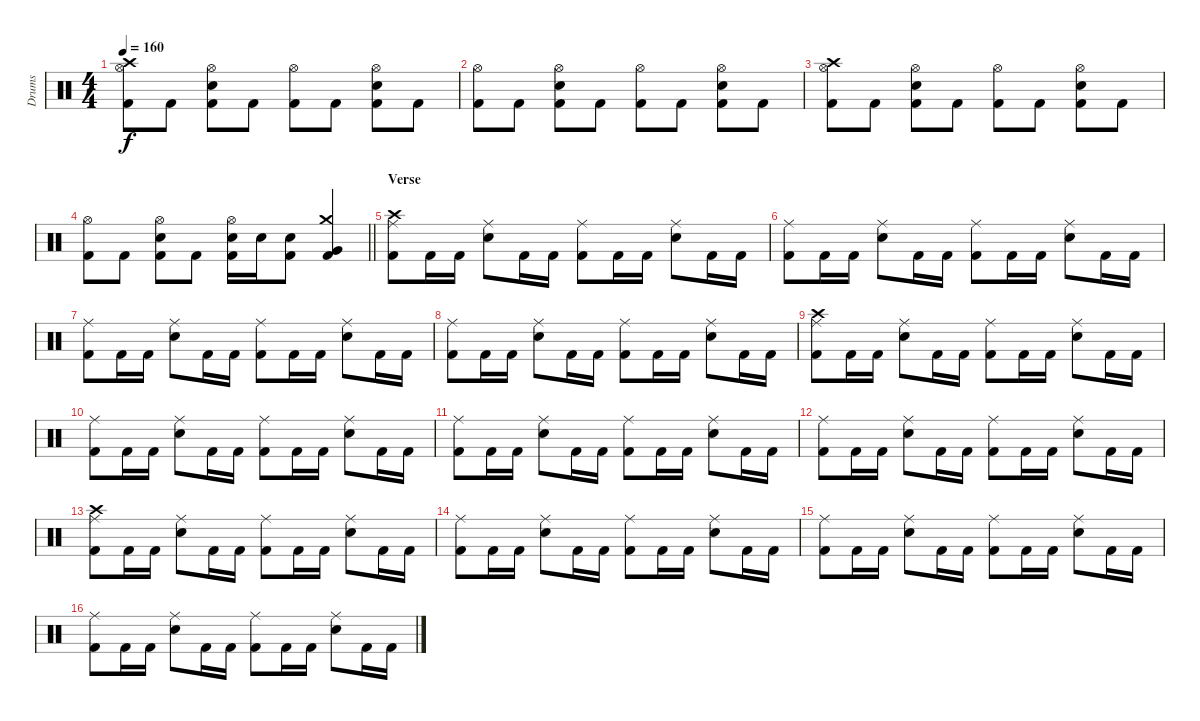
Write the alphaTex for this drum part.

\track ("Drums" "Drums") {instrument percussion}
\staff {score}
\articulation defaults
\ts (4 4)
\tempo 160
\clef neutral
\ks c
("Crash high (hit)" "Hi-Hat (open)" "Kick (hit) 2").8{dy f} "Kick (hit) 2".8 ("Hi-Hat (open)" "Snare (hit) 2" "Kick (hit) 2").8 "Kick (hit) 2".8 ("Hi-Hat (open)" "Kick (hit) 2").8 "Kick (hit) 2".8 ("Hi-Hat (open)" "Snare (hit) 2" "Kick (hit) 2").8 "Kick (hit) 2".8 |
("Hi-Hat (open)" "Kick (hit) 2").8 "Kick (hit) 2".8 ("Hi-Hat (open)" "Snare (hit) 2" "Kick (hit) 2").8 "Kick (hit) 2".8 ("Hi-Hat (open)" "Kick (hit) 2").8 "Kick (hit) 2".8 ("Hi-Hat (open)" "Snare (hit) 2" "Kick (hit) 2").8 "Kick (hit) 2".8 |
("Crash high (hit)" "Hi-Hat (open)" "Kick (hit) 2").8 "Kick (hit) 2".8 ("Hi-Hat (open)" "Snare (hit) 2" "Kick (hit) 2").8 "Kick (hit) 2".8 ("Hi-Hat (open)" "Kick (hit) 2").8 "Kick (hit) 2".8 ("Hi-Hat (open)" "Snare (hit) 2" "Kick (hit) 2").8 "Kick (hit) 2".8 |
\barLineRight lightlight
("Hi-Hat (open)" "Kick (hit) 2").8 "Kick (hit) 2".8 ("Hi-Hat (open)" "Snare (hit) 2" "Kick (hit) 2").8 "Kick (hit) 2".8 ("Hi-Hat (open)" "Snare (hit) 2" "Kick (hit) 2").16 "Snare (hit) 2".16 ("Snare (hit) 2" "Kick (hit) 2").8 ("Crash medium (hit)" "Very Low Tom (hit)" "Kick (hit) 2").4 |
\section ("" "Verse")
("Crash high (hit)" "Ride (middle)" "Kick (hit) 2").8 "Kick (hit) 2".16 "Kick (hit) 2".16 ("Ride (middle)" "Snare (hit) 2").8 "Kick (hit) 2".16 "Kick (hit) 2".16 ("Ride (middle)" "Kick (hit) 2").8 "Kick (hit) 2".16 "Kick (hit) 2".16 ("Ride (middle)" "Snare (hit) 2").8 "Kick (hit) 2".16 "Kick (hit) 2".16 |
("Ride (middle)" "Kick (hit) 2").8 "Kick (hit) 2".16 "Kick (hit) 2".16 ("Ride (middle)" "Snare (hit) 2").8 "Kick (hit) 2".16 "Kick (hit) 2".16 ("Ride (middle)" "Kick (hit) 2").8 "Kick (hit) 2".16 "Kick (hit) 2".16 ("Ride (middle)" "Snare (hit) 2").8 "Kick (hit) 2".16 "Kick (hit) 2".16 |
("Ride (middle)" "Kick (hit) 2").8 "Kick (hit) 2".16 "Kick (hit) 2".16 ("Ride (middle)" "Snare (hit) 2").8 "Kick (hit) 2".16 "Kick (hit) 2".16 ("Ride (middle)" "Kick (hit) 2").8 "Kick (hit) 2".16 "Kick (hit) 2".16 ("Ride (middle)" "Snare (hit) 2").8 "Kick (hit) 2".16 "Kick (hit) 2".16 |
("Ride (middle)" "Kick (hit) 2").8 "Kick (hit) 2".16 "Kick (hit) 2".16 ("Ride (middle)" "Snare (hit) 2").8 "Kick (hit) 2".16 "Kick (hit) 2".16 ("Ride (middle)" "Kick (hit) 2").8 "Kick (hit) 2".16 "Kick (hit) 2".16 ("Ride (middle)" "Snare (hit) 2").8 "Kick (hit) 2".16 "Kick (hit) 2".16 |
("Crash high (hit)" "Ride (middle)" "Kick (hit) 2").8 "Kick (hit) 2".16 "Kick (hit) 2".16 ("Ride (middle)" "Snare (hit) 2").8 "Kick (hit) 2".16 "Kick (hit) 2".16 ("Ride (middle)" "Kick (hit) 2").8 "Kick (hit) 2".16 "Kick (hit) 2".16 ("Ride (middle)" "Snare (hit) 2").8 "Kick (hit) 2".16 "Kick (hit) 2".16 |
("Ride (middle)" "Kick (hit) 2").8 "Kick (hit) 2".16 "Kick (hit) 2".16 ("Ride (middle)" "Snare (hit) 2").8 "Kick (hit) 2".16 "Kick (hit) 2".16 ("Ride (middle)" "Kick (hit) 2").8 "Kick (hit) 2".16 "Kick (hit) 2".16 ("Ride (middle)" "Snare (hit) 2").8 "Kick (hit) 2".16 "Kick (hit) 2".16 |
("Ride (middle)" "Kick (hit) 2").8 "Kick (hit) 2".16 "Kick (hit) 2".16 ("Ride (middle)" "Snare (hit) 2").8 "Kick (hit) 2".16 "Kick (hit) 2".16 ("Ride (middle)" "Kick (hit) 2").8 "Kick (hit) 2".16 "Kick (hit) 2".16 ("Ride (middle)" "Snare (hit) 2").8 "Kick (hit) 2".16 "Kick (hit) 2".16 |
("Ride (middle)" "Kick (hit) 2").8 "Kick (hit) 2".16 "Kick (hit) 2".16 ("Ride (middle)" "Snare (hit) 2").8 "Kick (hit) 2".16 "Kick (hit) 2".16 ("Ride (middle)" "Kick (hit) 2").8 "Kick (hit) 2".16 "Kick (hit) 2".16 ("Ride (middle)" "Snare (hit) 2").8 "Kick (hit) 2".16 "Kick (hit) 2".16 |
("Crash high (hit)" "Ride (middle)" "Kick (hit) 2").8 "Kick (hit) 2".16 "Kick (hit) 2".16 ("Ride (middle)" "Snare (hit) 2").8 "Kick (hit) 2".16 "Kick (hit) 2".16 ("Ride (middle)" "Kick (hit) 2").8 "Kick (hit) 2".16 "Kick (hit) 2".16 ("Ride (middle)" "Snare (hit) 2").8 "Kick (hit) 2".16 "Kick (hit) 2".16 |
("Ride (middle)" "Kick (hit) 2").8 "Kick (hit) 2".16 "Kick (hit) 2".16 ("Ride (middle)" "Snare (hit) 2").8 "Kick (hit) 2".16 "Kick (hit) 2".16 ("Ride (middle)" "Kick (hit) 2").8 "Kick (hit) 2".16 "Kick (hit) 2".16 ("Ride (middle)" "Snare (hit) 2").8 "Kick (hit) 2".16 "Kick (hit) 2".16 |
("Ride (middle)" "Kick (hit) 2").8 "Kick (hit) 2".16 "Kick (hit) 2".16 ("Ride (middle)" "Snare (hit) 2").8 "Kick (hit) 2".16 "Kick (hit) 2".16 ("Ride (middle)" "Kick (hit) 2").8 "Kick (hit) 2".16 "Kick (hit) 2".16 ("Ride (middle)" "Snare (hit) 2").8 "Kick (hit) 2".16 "Kick (hit) 2".16 |
("Ride (middle)" "Kick (hit) 2").8 "Kick (hit) 2".16 "Kick (hit) 2".16 ("Ride (middle)" "Snare (hit) 2").8 "Kick (hit) 2".16 "Kick (hit) 2".16 ("Ride (middle)" "Kick (hit) 2").8 "Kick (hit) 2".16 "Kick (hit) 2".16 ("Ride (middle)" "Snare (hit) 2").8 "Kick (hit) 2".16 "Kick (hit) 2".16
